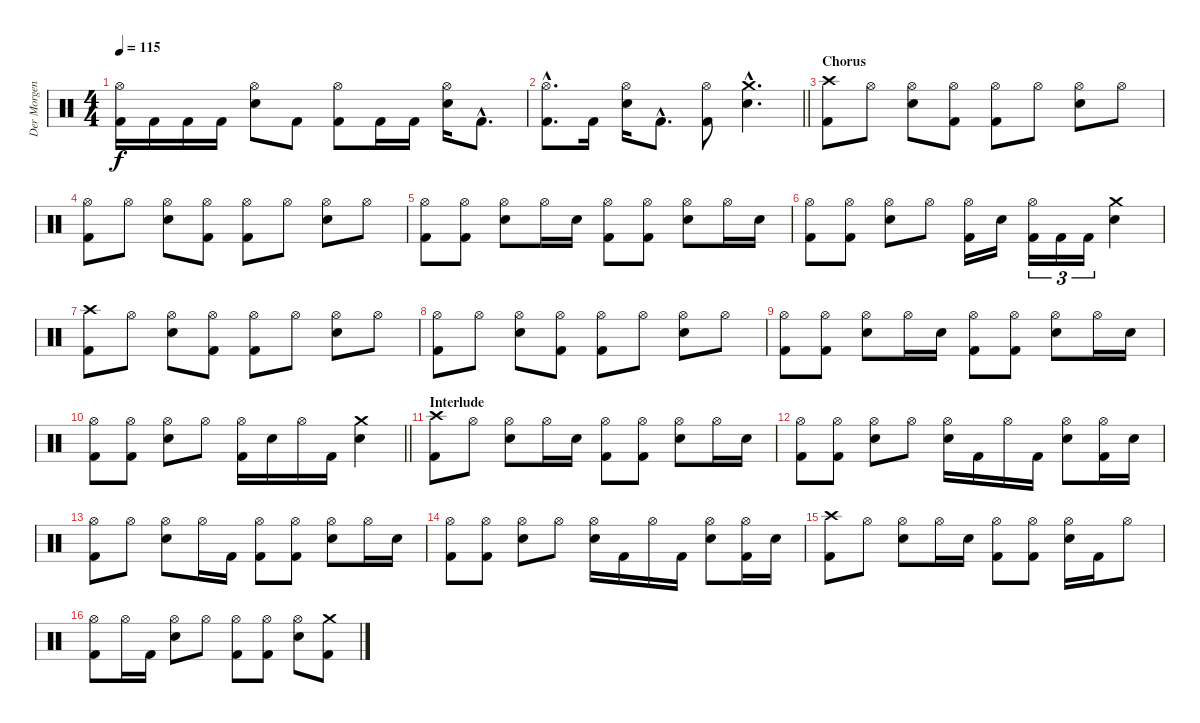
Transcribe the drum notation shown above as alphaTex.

\track ("Der Morgenstern" "Der Morgen") {instrument percussion}
\staff {score}
\articulation defaults
\ts (4 4)
\tempo 115
\clef neutral
\ks c
("Hi-Hat (open)" "Kick (hit) 2").16{dy f} "Kick (hit) 2".16 "Kick (hit) 2".16 "Kick (hit) 2".16 ("Hi-Hat (open)" "Electric Snare (hit)").8 "Kick (hit) 2".8 ("Hi-Hat (open)" "Kick (hit) 2").8 "Kick (hit) 2".16 "Kick (hit) 2".16 ("Hi-Hat (open)" "Electric Snare (hit)").16 "Kick (hit) 2"{hac}.8{d} |
\barLineRight lightlight
("Hi-Hat (open)"{hac} "Kick (hit) 2"{hac}).8{d} "Kick (hit) 2".16 ("Hi-Hat (open)" "Electric Snare (hit)").16 "Kick (hit) 2"{hac}.8{d} ("Hi-Hat (open)" "Kick (hit) 2").8 ("Crash medium (hit)"{hac} "Electric Snare (hit)"{hac}).4{d} |
\section ("" "Chorus")
("Crash high (hit)" "Kick (hit) 2").8 "Hi-Hat (open)".8 ("Hi-Hat (open)" "Electric Snare (hit)").8 ("Hi-Hat (open)" "Kick (hit) 2").8 ("Hi-Hat (open)" "Kick (hit) 2").8 "Hi-Hat (open)".8 ("Hi-Hat (open)" "Electric Snare (hit)").8 "Hi-Hat (open)".8 |
("Hi-Hat (open)" "Kick (hit) 2").8 "Hi-Hat (open)".8 ("Hi-Hat (open)" "Electric Snare (hit)").8 ("Hi-Hat (open)" "Kick (hit) 2").8 ("Hi-Hat (open)" "Kick (hit) 2").8 "Hi-Hat (open)".8 ("Hi-Hat (open)" "Electric Snare (hit)").8 "Hi-Hat (open)".8 |
("Hi-Hat (open)" "Kick (hit) 2").8 ("Hi-Hat (open)" "Kick (hit) 2").8 ("Hi-Hat (open)" "Electric Snare (hit)").8 "Hi-Hat (open)".16 "Electric Snare (hit)".16 ("Hi-Hat (open)" "Kick (hit) 2").8 ("Hi-Hat (open)" "Kick (hit) 2").8 ("Hi-Hat (open)" "Electric Snare (hit)").8 "Hi-Hat (open)".16 "Electric Snare (hit)".16 |
("Hi-Hat (open)" "Kick (hit) 2").8 ("Hi-Hat (open)" "Kick (hit) 2").8 ("Hi-Hat (open)" "Electric Snare (hit)").8 "Hi-Hat (open)".8 ("Hi-Hat (open)" "Kick (hit) 2").16 "Electric Snare (hit)".16 ("Hi-Hat (open)" "Kick (hit) 2").16{tu (3 2)} "Kick (hit) 2".16{tu (3 2)} "Kick (hit) 2".16{tu (3 2)} ("Crash medium (hit)" "Electric Snare (hit)").4 |
("Crash high (hit)" "Kick (hit) 2").8 "Hi-Hat (open)".8 ("Hi-Hat (open)" "Electric Snare (hit)").8 ("Hi-Hat (open)" "Kick (hit) 2").8 ("Hi-Hat (open)" "Kick (hit) 2").8 "Hi-Hat (open)".8 ("Hi-Hat (open)" "Electric Snare (hit)").8 "Hi-Hat (open)".8 |
("Hi-Hat (open)" "Kick (hit) 2").8 "Hi-Hat (open)".8 ("Hi-Hat (open)" "Electric Snare (hit)").8 ("Hi-Hat (open)" "Kick (hit) 2").8 ("Hi-Hat (open)" "Kick (hit) 2").8 "Hi-Hat (open)".8 ("Hi-Hat (open)" "Electric Snare (hit)").8 "Hi-Hat (open)".8 |
("Hi-Hat (open)" "Kick (hit) 2").8 ("Hi-Hat (open)" "Kick (hit) 2").8 ("Hi-Hat (open)" "Electric Snare (hit)").8 "Hi-Hat (open)".16 "Electric Snare (hit)".16 ("Hi-Hat (open)" "Kick (hit) 2").8 ("Hi-Hat (open)" "Kick (hit) 2").8 ("Hi-Hat (open)" "Electric Snare (hit)").8 "Hi-Hat (open)".16 "Electric Snare (hit)".16 |
\barLineRight lightlight
("Hi-Hat (open)" "Kick (hit) 2").8 ("Hi-Hat (open)" "Kick (hit) 2").8 ("Hi-Hat (open)" "Electric Snare (hit)").8 "Hi-Hat (open)".8 ("Hi-Hat (open)" "Kick (hit) 2").16 "Electric Snare (hit)".16 "Hi-Hat (open)".16 "Kick (hit) 2".16 ("Crash medium (hit)" "Electric Snare (hit)").4 |
\section ("" "Interlude")
("Crash high (hit)" "Kick (hit) 2").8 "Hi-Hat (open)".8 ("Hi-Hat (open)" "Electric Snare (hit)").8 "Hi-Hat (open)".16 "Electric Snare (hit)".16 ("Hi-Hat (open)" "Kick (hit) 2").8 ("Hi-Hat (open)" "Kick (hit) 2").8 ("Hi-Hat (open)" "Electric Snare (hit)").8 "Hi-Hat (open)".16 "Electric Snare (hit)".16 |
("Hi-Hat (open)" "Kick (hit) 2").8 ("Hi-Hat (open)" "Kick (hit) 2").8 ("Hi-Hat (open)" "Electric Snare (hit)").8 "Hi-Hat (open)".8 ("Hi-Hat (open)" "Electric Snare (hit)").16 "Kick (hit) 2".16 "Hi-Hat (open)".16 "Kick (hit) 2".16 ("Hi-Hat (open)" "Electric Snare (hit)").8 ("Hi-Hat (open)" "Kick (hit) 2").16 "Electric Snare (hit)".16 |
("Hi-Hat (open)" "Kick (hit) 2").8 "Hi-Hat (open)".8 ("Hi-Hat (open)" "Electric Snare (hit)").8 "Hi-Hat (open)".16 "Kick (hit) 2".16 ("Hi-Hat (open)" "Kick (hit) 2").8 ("Hi-Hat (open)" "Kick (hit) 2").8 ("Hi-Hat (open)" "Electric Snare (hit)").8 "Hi-Hat (open)".16 "Electric Snare (hit)".16 |
("Hi-Hat (open)" "Kick (hit) 2").8 ("Hi-Hat (open)" "Kick (hit) 2").8 ("Hi-Hat (open)" "Electric Snare (hit)").8 "Hi-Hat (open)".8 ("Hi-Hat (open)" "Electric Snare (hit)").16 "Kick (hit) 2".16 "Hi-Hat (open)".16 "Kick (hit) 2".16 ("Hi-Hat (open)" "Electric Snare (hit)").8 ("Hi-Hat (open)" "Kick (hit) 2").16 "Electric Snare (hit)".16 |
("Crash high (hit)" "Kick (hit) 2").8 "Hi-Hat (open)".8 ("Hi-Hat (open)" "Electric Snare (hit)").8 "Hi-Hat (open)".16 "Electric Snare (hit)".16 ("Hi-Hat (open)" "Kick (hit) 2").8 ("Hi-Hat (open)" "Kick (hit) 2").8 ("Hi-Hat (open)" "Electric Snare (hit)").16 "Kick (hit) 2".16 "Hi-Hat (open)".8 |
("Hi-Hat (open)" "Kick (hit) 2").8 "Hi-Hat (open)".16 "Kick (hit) 2".16 ("Hi-Hat (open)" "Electric Snare (hit)").8 "Hi-Hat (open)".8 ("Hi-Hat (open)" "Kick (hit) 2").8 ("Hi-Hat (open)" "Kick (hit) 2").8 ("Hi-Hat (open)" "Electric Snare (hit)").8 ("Crash medium (hit)" "Kick (hit) 2").8
